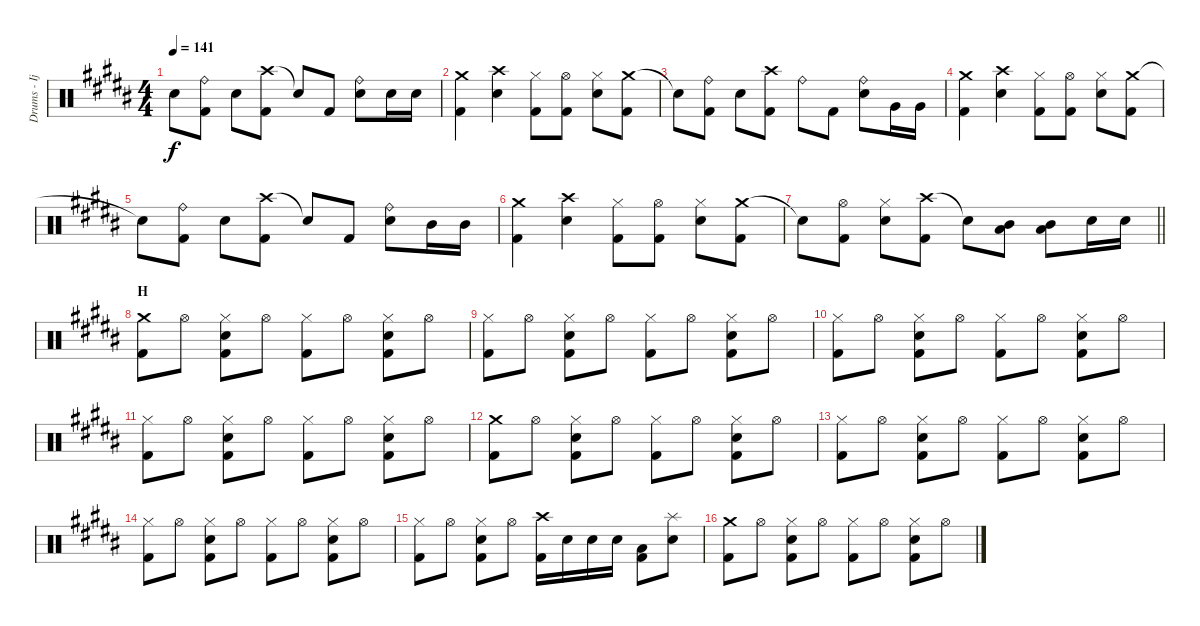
\track ("Drums - Ijichi" "Drums - Ij") {instrument percussion}
\staff {score}
\articulation defaults
\ts (4 4)
\tempo 141
\clef neutral
\ks b "Snare (hit)"{t}.8{dy f}
("Ride (bell)" "Kick (hit) 2").8 "Electric Snare (hit)".8 ("Crash high (hit)" "Kick (hit) 2").8 "Snare (hit)"{t}.8 "Kick (hit) 2".8 ("Ride (bell)" "Electric Snare (hit)").8 "Electric Snare (hit)".16 "Electric Snare (hit)".16 |
("Crash medium (hit)" "Kick (hit) 2").4 ("Crash high (hit)" "Electric Snare (hit)").4 ("Hi-Hat (closed)" "Kick (hit) 2").8 ("Hi-Hat (open)" "Kick (hit) 2").8 ("Hi-Hat (closed)" "Electric Snare (hit)").8 ("Crash medium (hit)" "Kick (hit) 2").8 |
"Snare (hit)"{t}.8 ("Ride (bell)" "Kick (hit) 2").8 "Electric Snare (hit)".8 ("Crash high (hit)" "Kick (hit) 2").8 "Ride (bell)".8 "Kick (hit) 2".8 ("Ride (bell)" "Electric Snare (hit)").8 "Very Low Tom (hit)".16 "Very Low Tom (hit)".16 |
("Crash medium (hit)" "Kick (hit) 2").4 ("Crash high (hit)" "Electric Snare (hit)").4 ("Hi-Hat (closed)" "Kick (hit) 2").8 ("Hi-Hat (open)" "Kick (hit) 2").8 ("Hi-Hat (closed)" "Electric Snare (hit)").8 ("Crash medium (hit)" "Kick (hit) 2").8 |
"Snare (hit)"{t}.8 ("Ride (bell)" "Kick (hit) 2").8 "Electric Snare (hit)".8 ("Crash high (hit)" "Kick (hit) 2").8 "Snare (hit)"{t}.8 "Kick (hit) 2".8 ("Ride (bell)" "Electric Snare (hit)").8 "Mid Tom (hit)".16 "Mid Tom (hit)".16 |
("Crash medium (hit)" "Kick (hit) 2").4 ("Crash high (hit)" "Electric Snare (hit)").4 ("Hi-Hat (closed)" "Kick (hit) 2").8 ("Hi-Hat (open)" "Kick (hit) 2").8 ("Hi-Hat (closed)" "Electric Snare (hit)").8 ("Crash medium (hit)" "Kick (hit) 2").8 |
\barLineRight lightlight "Snare (hit)"{t}.8
("Hi-Hat (open)" "Kick (hit) 2").8 ("Hi-Hat (closed)" "Electric Snare (hit)").8 ("Crash high (hit)" "Kick (hit) 2").8 "Snare (hit)"{t}.8 ("Mid Tom (hit)" "Low Tom (hit)").8 ("Mid Tom (hit)" "Low Tom (hit)").8 "Electric Snare (hit)".16 "Electric Snare (hit)".16 |
\section ("" "H")
("Crash medium (hit)" "Kick (hit) 2").8 "Hi-Hat (open)".8 ("Hi-Hat (closed)" "Electric Snare (hit)" "Kick (hit) 2").8 "Hi-Hat (open)".8 ("Hi-Hat (closed)" "Kick (hit) 2").8 "Hi-Hat (open)".8 ("Hi-Hat (closed)" "Electric Snare (hit)" "Kick (hit) 2").8 "Hi-Hat (open)".8 |
("Hi-Hat (closed)" "Kick (hit) 2").8 "Hi-Hat (open)".8 ("Hi-Hat (closed)" "Electric Snare (hit)" "Kick (hit) 2").8 "Hi-Hat (open)".8 ("Hi-Hat (closed)" "Kick (hit) 2").8 "Hi-Hat (open)".8 ("Hi-Hat (closed)" "Electric Snare (hit)" "Kick (hit) 2").8 "Hi-Hat (open)".8 |
("Hi-Hat (closed)" "Kick (hit) 2").8 "Hi-Hat (open)".8 ("Hi-Hat (closed)" "Electric Snare (hit)" "Kick (hit) 2").8 "Hi-Hat (open)".8 ("Hi-Hat (closed)" "Kick (hit) 2").8 "Hi-Hat (open)".8 ("Hi-Hat (closed)" "Electric Snare (hit)" "Kick (hit) 2").8 "Hi-Hat (open)".8 |
("Hi-Hat (closed)" "Kick (hit) 2").8 "Hi-Hat (open)".8 ("Hi-Hat (closed)" "Electric Snare (hit)" "Kick (hit) 2").8 "Hi-Hat (open)".8 ("Hi-Hat (closed)" "Kick (hit) 2").8 "Hi-Hat (open)".8 ("Hi-Hat (closed)" "Electric Snare (hit)" "Kick (hit) 2").8 "Hi-Hat (open)".8 |
("Crash medium (hit)" "Kick (hit) 2").8 "Hi-Hat (open)".8 ("Hi-Hat (closed)" "Electric Snare (hit)" "Kick (hit) 2").8 "Hi-Hat (open)".8 ("Hi-Hat (closed)" "Kick (hit) 2").8 "Hi-Hat (open)".8 ("Hi-Hat (closed)" "Electric Snare (hit)" "Kick (hit) 2").8 "Hi-Hat (open)".8 |
("Hi-Hat (closed)" "Kick (hit) 2").8 "Hi-Hat (open)".8 ("Hi-Hat (closed)" "Electric Snare (hit)" "Kick (hit) 2").8 "Hi-Hat (open)".8 ("Hi-Hat (closed)" "Kick (hit) 2").8 "Hi-Hat (open)".8 ("Hi-Hat (closed)" "Electric Snare (hit)" "Kick (hit) 2").8 "Hi-Hat (open)".8 |
("Hi-Hat (closed)" "Kick (hit) 2").8 "Hi-Hat (open)".8 ("Hi-Hat (closed)" "Electric Snare (hit)" "Kick (hit) 2").8 "Hi-Hat (open)".8 ("Hi-Hat (closed)" "Kick (hit) 2").8 "Hi-Hat (open)".8 ("Hi-Hat (closed)" "Electric Snare (hit)" "Kick (hit) 2").8 "Hi-Hat (open)".8 |
("Hi-Hat (closed)" "Kick (hit) 2").8 "Hi-Hat (open)".8 ("Hi-Hat (closed)" "Electric Snare (hit)" "Kick (hit) 2").8 "Hi-Hat (open)".8 ("Crash high (hit)" "Kick (hit) 2").16 "Electric Snare (hit)".16 "Electric Snare (hit)".16 "Electric Snare (hit)".16 ("Low Tom (hit)" "Kick (hit) 2").8 ("Splash (hit)" "Electric Snare (hit)").8 |
("Crash medium (hit)" "Kick (hit) 2").8 "Hi-Hat (open)".8 ("Hi-Hat (closed)" "Electric Snare (hit)" "Kick (hit) 2").8 "Hi-Hat (open)".8 ("Hi-Hat (closed)" "Kick (hit) 2").8 "Hi-Hat (open)".8 ("Hi-Hat (closed)" "Electric Snare (hit)" "Kick (hit) 2").8 "Hi-Hat (open)".8
